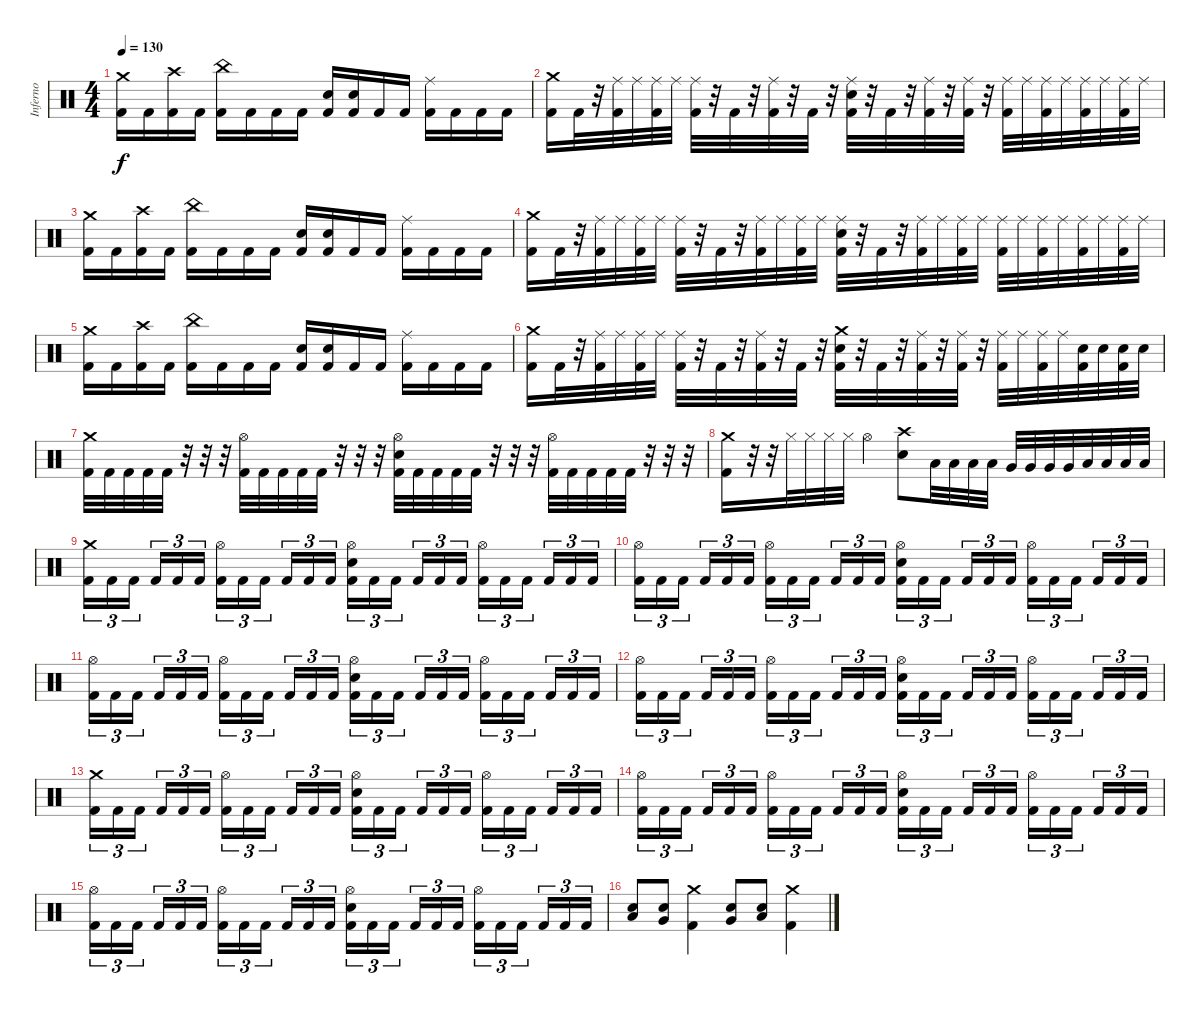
\track ("Inferno" "Inferno") {instrument percussion}
\staff {score}
\articulation defaults
\ts (4 4)
\tempo 130
\clef neutral
\ks c
("Crash medium (hit)" "Kick (hit) 2").16{dy f} "Kick (hit) 2".16 ("Crash high (hit)" "Kick (hit) 2").16 "Kick (hit) 2".16 ("China (hit)" "Kick (hit) 2").16 "Kick (hit) 2".16 "Kick (hit) 2".16 "Kick (hit) 2".16 ("Snare (hit) 2" "Kick (hit) 2").16 ("Snare (hit) 2" "Kick (hit) 2").16 "Kick (hit) 2".16 "Kick (hit) 2".16 ("Ride (middle)" "Kick (hit) 2").16 "Kick (hit) 2".16 "Kick (hit) 2".16 "Kick (hit) 2".16 |
("Crash medium (hit)" "Kick (hit) 2").16 "Kick (hit) 2".32 r.32 ("Ride (middle)" "Kick (hit) 2").32 "Ride (middle)".32 ("Ride (middle)" "Kick (hit) 2").32 "Ride (middle)".32 ("Ride (middle)" "Kick (hit) 2").32 r.32 "Kick (hit) 2".32 r.32 ("Ride (middle)" "Kick (hit) 2").32 r.32 "Kick (hit) 2".32 r.32 ("Ride (middle)" "Snare (hit) 2" "Kick (hit) 2").32 r.32 "Kick (hit) 2".32 r.32 ("Ride (middle)" "Kick (hit) 2").32 r.32 ("Ride (middle)" "Kick (hit) 2").32 r.32 ("Ride (middle)" "Kick (hit) 2").32 "Ride (middle)".32 ("Ride (middle)" "Kick (hit) 2").32 "Ride (middle)".32 ("Ride (middle)" "Kick (hit) 2").32 "Ride (middle)".32 ("Ride (middle)" "Kick (hit) 2").32 "Ride (middle)".32 |
("Crash medium (hit)" "Kick (hit) 2").16 "Kick (hit) 2".16 ("Crash high (hit)" "Kick (hit) 2").16 "Kick (hit) 2".16 ("China (hit)" "Kick (hit) 2").16 "Kick (hit) 2".16 "Kick (hit) 2".16 "Kick (hit) 2".16 ("Snare (hit) 2" "Kick (hit) 2").16 ("Snare (hit) 2" "Kick (hit) 2").16 "Kick (hit) 2".16 "Kick (hit) 2".16 ("Ride (middle)" "Kick (hit) 2").16 "Kick (hit) 2".16 "Kick (hit) 2".16 "Kick (hit) 2".16 |
("Crash medium (hit)" "Kick (hit) 2").16 "Kick (hit) 2".32 r.32 ("Ride (middle)" "Kick (hit) 2").32 "Ride (middle)".32 ("Ride (middle)" "Kick (hit) 2").32 "Ride (middle)".32 ("Ride (middle)" "Kick (hit) 2").32 r.32 "Kick (hit) 2".32 r.32 ("Ride (middle)" "Kick (hit) 2").32 "Ride (middle)".32 ("Ride (middle)" "Kick (hit) 2").32 "Ride (middle)".32 ("Ride (middle)" "Snare (hit) 2" "Kick (hit) 2").32 r.32 "Kick (hit) 2".32 r.32 ("Ride (middle)" "Kick (hit) 2").32 "Ride (middle)".32 ("Ride (middle)" "Kick (hit) 2").32 "Ride (middle)".32 ("Ride (middle)" "Kick (hit) 2").32 "Ride (middle)".32 ("Ride (middle)" "Kick (hit) 2").32 "Ride (middle)".32 ("Ride (middle)" "Kick (hit) 2").32 "Ride (middle)".32 ("Ride (middle)" "Kick (hit) 2").32 "Ride (middle)".32 |
("Crash medium (hit)" "Kick (hit) 2").16 "Kick (hit) 2".16 ("Crash high (hit)" "Kick (hit) 2").16 "Kick (hit) 2".16 ("China (hit)" "Kick (hit) 2").16 "Kick (hit) 2".16 "Kick (hit) 2".16 "Kick (hit) 2".16 ("Snare (hit) 2" "Kick (hit) 2").16 ("Snare (hit) 2" "Kick (hit) 2").16 "Kick (hit) 2".16 "Kick (hit) 2".16 ("Ride (middle)" "Kick (hit) 2").16 "Kick (hit) 2".16 "Kick (hit) 2".16 "Kick (hit) 2".16 |
("Crash medium (hit)" "Kick (hit) 2").16 "Kick (hit) 2".32 r.32 ("Ride (middle)" "Kick (hit) 2").32 "Ride (middle)".32 ("Ride (middle)" "Kick (hit) 2").32 "Ride (middle)".32 ("Ride (middle)" "Kick (hit) 2").32 r.32 "Kick (hit) 2".32 r.32 ("Ride (middle)" "Kick (hit) 2").32 r.32 "Kick (hit) 2".32 r.32 ("Crash medium (hit)" "Snare (hit) 2" "Kick (hit) 2").32 r.32 "Kick (hit) 2".32 r.32 ("Ride (middle)" "Kick (hit) 2").32 r.32 ("Ride (middle)" "Kick (hit) 2").32 r.32 ("Ride (middle)" "Kick (hit) 2").32 "Ride (middle)".32 ("Ride (middle)" "Kick (hit) 2").32 "Ride (middle)".32 ("Snare (hit) 2" "Kick (hit) 2").32 "Snare (hit) 2".32 ("Snare (hit) 2" "Kick (hit) 2").32 "Snare (hit) 2".32 |
("Crash medium (hit)" "Kick (hit) 2").32 "Kick (hit) 2".32 "Kick (hit) 2".32 "Kick (hit) 2".32 "Kick (hit) 2".32 r.32 r.32 r.32 ("Hi-Hat (open)" "Kick (hit) 2").32 "Kick (hit) 2".32 "Kick (hit) 2".32 "Kick (hit) 2".32 "Kick (hit) 2".32 r.32 r.32 r.32 ("Hi-Hat (open)" "Snare (hit) 2" "Kick (hit) 2").32 "Kick (hit) 2".32 "Kick (hit) 2".32 "Kick (hit) 2".32 "Kick (hit) 2".32 r.32 r.32 r.32 ("Hi-Hat (open)" "Kick (hit) 2").32 "Kick (hit) 2".32 "Kick (hit) 2".32 "Kick (hit) 2".32 "Kick (hit) 2".32 r.32 r.32 r.32 |
("Crash medium (hit)" "Kick (hit) 2").16 r.32 r.32 "Hi-Hat (closed)".32 "Hi-Hat (closed)".32 "Hi-Hat (closed)".32 "Hi-Hat (closed)".32 "Hi-Hat (open)".4 ("Crash high (hit)" "Snare (hit) 2").8 "Low Tom (hit)".32 "Low Tom (hit)".32 "Low Tom (hit)".32 "Low Tom (hit)".32 "Very Low Tom (hit)".32 "Very Low Tom (hit)".32 "Very Low Tom (hit)".32 "Very Low Tom (hit)".32 "Low Floor Tom (hit)".32 "Low Floor Tom (hit)".32 "Low Floor Tom (hit)".32 "Low Floor Tom (hit)".32 |
("Crash medium (hit)" "Kick (hit) 2").16{tu (3 2)} "Kick (hit) 2".16{tu (3 2)} "Kick (hit) 2".16{tu (3 2) beam splitsecondary} "Kick (hit) 2".16{tu (3 2)} "Kick (hit) 2".16{tu (3 2)} "Kick (hit) 2".16{tu (3 2)} ("Hi-Hat (open)" "Kick (hit) 2").16{tu (3 2)} "Kick (hit) 2".16{tu (3 2)} "Kick (hit) 2".16{tu (3 2) beam splitsecondary} "Kick (hit) 2".16{tu (3 2)} "Kick (hit) 2".16{tu (3 2)} "Kick (hit) 2".16{tu (3 2)} ("Hi-Hat (open)" "Snare (hit) 2" "Kick (hit) 2").16{tu (3 2)} "Kick (hit) 2".16{tu (3 2)} "Kick (hit) 2".16{tu (3 2) beam splitsecondary} "Kick (hit) 2".16{tu (3 2)} "Kick (hit) 2".16{tu (3 2)} "Kick (hit) 2".16{tu (3 2)} ("Hi-Hat (open)" "Kick (hit) 2").16{tu (3 2)} "Kick (hit) 2".16{tu (3 2)} "Kick (hit) 2".16{tu (3 2) beam splitsecondary} "Kick (hit) 2".16{tu (3 2)} "Kick (hit) 2".16{tu (3 2)} "Kick (hit) 2".16{tu (3 2)} |
("Hi-Hat (open)" "Kick (hit) 2").16{tu (3 2)} "Kick (hit) 2".16{tu (3 2)} "Kick (hit) 2".16{tu (3 2) beam splitsecondary} "Kick (hit) 2".16{tu (3 2)} "Kick (hit) 2".16{tu (3 2)} "Kick (hit) 2".16{tu (3 2)} ("Hi-Hat (open)" "Kick (hit) 2").16{tu (3 2)} "Kick (hit) 2".16{tu (3 2)} "Kick (hit) 2".16{tu (3 2) beam splitsecondary} "Kick (hit) 2".16{tu (3 2)} "Kick (hit) 2".16{tu (3 2)} "Kick (hit) 2".16{tu (3 2)} ("Hi-Hat (open)" "Snare (hit) 2" "Kick (hit) 2").16{tu (3 2)} "Kick (hit) 2".16{tu (3 2)} "Kick (hit) 2".16{tu (3 2) beam splitsecondary} "Kick (hit) 2".16{tu (3 2)} "Kick (hit) 2".16{tu (3 2)} "Kick (hit) 2".16{tu (3 2)} ("Hi-Hat (open)" "Kick (hit) 2").16{tu (3 2)} "Kick (hit) 2".16{tu (3 2)} "Kick (hit) 2".16{tu (3 2) beam splitsecondary} "Kick (hit) 2".16{tu (3 2)} "Kick (hit) 2".16{tu (3 2)} "Kick (hit) 2".16{tu (3 2)} |
("Hi-Hat (open)" "Kick (hit) 2").16{tu (3 2)} "Kick (hit) 2".16{tu (3 2)} "Kick (hit) 2".16{tu (3 2) beam splitsecondary} "Kick (hit) 2".16{tu (3 2)} "Kick (hit) 2".16{tu (3 2)} "Kick (hit) 2".16{tu (3 2)} ("Hi-Hat (open)" "Kick (hit) 2").16{tu (3 2)} "Kick (hit) 2".16{tu (3 2)} "Kick (hit) 2".16{tu (3 2) beam splitsecondary} "Kick (hit) 2".16{tu (3 2)} "Kick (hit) 2".16{tu (3 2)} "Kick (hit) 2".16{tu (3 2)} ("Hi-Hat (open)" "Snare (hit) 2" "Kick (hit) 2").16{tu (3 2)} "Kick (hit) 2".16{tu (3 2)} "Kick (hit) 2".16{tu (3 2) beam splitsecondary} "Kick (hit) 2".16{tu (3 2)} "Kick (hit) 2".16{tu (3 2)} "Kick (hit) 2".16{tu (3 2)} ("Hi-Hat (open)" "Kick (hit) 2").16{tu (3 2)} "Kick (hit) 2".16{tu (3 2)} "Kick (hit) 2".16{tu (3 2) beam splitsecondary} "Kick (hit) 2".16{tu (3 2)} "Kick (hit) 2".16{tu (3 2)} "Kick (hit) 2".16{tu (3 2)} |
("Hi-Hat (open)" "Kick (hit) 2").16{tu (3 2)} "Kick (hit) 2".16{tu (3 2)} "Kick (hit) 2".16{tu (3 2) beam splitsecondary} "Kick (hit) 2".16{tu (3 2)} "Kick (hit) 2".16{tu (3 2)} "Kick (hit) 2".16{tu (3 2)} ("Hi-Hat (open)" "Kick (hit) 2").16{tu (3 2)} "Kick (hit) 2".16{tu (3 2)} "Kick (hit) 2".16{tu (3 2) beam splitsecondary} "Kick (hit) 2".16{tu (3 2)} "Kick (hit) 2".16{tu (3 2)} "Kick (hit) 2".16{tu (3 2)} ("Hi-Hat (open)" "Snare (hit) 2" "Kick (hit) 2").16{tu (3 2)} "Kick (hit) 2".16{tu (3 2)} "Kick (hit) 2".16{tu (3 2) beam splitsecondary} "Kick (hit) 2".16{tu (3 2)} "Kick (hit) 2".16{tu (3 2)} "Kick (hit) 2".16{tu (3 2)} ("Hi-Hat (open)" "Kick (hit) 2").16{tu (3 2)} "Kick (hit) 2".16{tu (3 2)} "Kick (hit) 2".16{tu (3 2) beam splitsecondary} "Kick (hit) 2".16{tu (3 2)} "Kick (hit) 2".16{tu (3 2)} "Kick (hit) 2".16{tu (3 2)} |
("Crash medium (hit)" "Kick (hit) 2").16{tu (3 2)} "Kick (hit) 2".16{tu (3 2)} "Kick (hit) 2".16{tu (3 2) beam splitsecondary} "Kick (hit) 2".16{tu (3 2)} "Kick (hit) 2".16{tu (3 2)} "Kick (hit) 2".16{tu (3 2)} ("Hi-Hat (open)" "Kick (hit) 2").16{tu (3 2)} "Kick (hit) 2".16{tu (3 2)} "Kick (hit) 2".16{tu (3 2) beam splitsecondary} "Kick (hit) 2".16{tu (3 2)} "Kick (hit) 2".16{tu (3 2)} "Kick (hit) 2".16{tu (3 2)} ("Hi-Hat (open)" "Snare (hit) 2" "Kick (hit) 2").16{tu (3 2)} "Kick (hit) 2".16{tu (3 2)} "Kick (hit) 2".16{tu (3 2) beam splitsecondary} "Kick (hit) 2".16{tu (3 2)} "Kick (hit) 2".16{tu (3 2)} "Kick (hit) 2".16{tu (3 2)} ("Hi-Hat (open)" "Kick (hit) 2").16{tu (3 2)} "Kick (hit) 2".16{tu (3 2)} "Kick (hit) 2".16{tu (3 2) beam splitsecondary} "Kick (hit) 2".16{tu (3 2)} "Kick (hit) 2".16{tu (3 2)} "Kick (hit) 2".16{tu (3 2)} |
("Hi-Hat (open)" "Kick (hit) 2").16{tu (3 2)} "Kick (hit) 2".16{tu (3 2)} "Kick (hit) 2".16{tu (3 2) beam splitsecondary} "Kick (hit) 2".16{tu (3 2)} "Kick (hit) 2".16{tu (3 2)} "Kick (hit) 2".16{tu (3 2)} ("Hi-Hat (open)" "Kick (hit) 2").16{tu (3 2)} "Kick (hit) 2".16{tu (3 2)} "Kick (hit) 2".16{tu (3 2) beam splitsecondary} "Kick (hit) 2".16{tu (3 2)} "Kick (hit) 2".16{tu (3 2)} "Kick (hit) 2".16{tu (3 2)} ("Hi-Hat (open)" "Snare (hit) 2" "Kick (hit) 2").16{tu (3 2)} "Kick (hit) 2".16{tu (3 2)} "Kick (hit) 2".16{tu (3 2) beam splitsecondary} "Kick (hit) 2".16{tu (3 2)} "Kick (hit) 2".16{tu (3 2)} "Kick (hit) 2".16{tu (3 2)} ("Hi-Hat (open)" "Kick (hit) 2").16{tu (3 2)} "Kick (hit) 2".16{tu (3 2)} "Kick (hit) 2".16{tu (3 2) beam splitsecondary} "Kick (hit) 2".16{tu (3 2)} "Kick (hit) 2".16{tu (3 2)} "Kick (hit) 2".16{tu (3 2)} |
("Hi-Hat (open)" "Kick (hit) 2").16{tu (3 2)} "Kick (hit) 2".16{tu (3 2)} "Kick (hit) 2".16{tu (3 2) beam splitsecondary} "Kick (hit) 2".16{tu (3 2)} "Kick (hit) 2".16{tu (3 2)} "Kick (hit) 2".16{tu (3 2)} ("Hi-Hat (open)" "Kick (hit) 2").16{tu (3 2)} "Kick (hit) 2".16{tu (3 2)} "Kick (hit) 2".16{tu (3 2) beam splitsecondary} "Kick (hit) 2".16{tu (3 2)} "Kick (hit) 2".16{tu (3 2)} "Kick (hit) 2".16{tu (3 2)} ("Hi-Hat (open)" "Snare (hit) 2" "Kick (hit) 2").16{tu (3 2)} "Kick (hit) 2".16{tu (3 2)} "Kick (hit) 2".16{tu (3 2) beam splitsecondary} "Kick (hit) 2".16{tu (3 2)} "Kick (hit) 2".16{tu (3 2)} "Kick (hit) 2".16{tu (3 2)} ("Hi-Hat (open)" "Kick (hit) 2").16{tu (3 2)} "Kick (hit) 2".16{tu (3 2)} "Kick (hit) 2".16{tu (3 2) beam splitsecondary} "Kick (hit) 2".16{tu (3 2)} "Kick (hit) 2".16{tu (3 2)} "Kick (hit) 2".16{tu (3 2)} |
("Low Tom (hit)" "Snare (hit) 2").8 ("Very Low Tom (hit)" "Snare (hit) 2").8 ("Crash medium (hit)" "Kick (hit) 2").4 ("Very Low Tom (hit)" "Snare (hit) 2").8 ("Low Floor Tom (hit)" "Snare (hit) 2").8 ("Crash medium (hit)" "Kick (hit) 2").4
